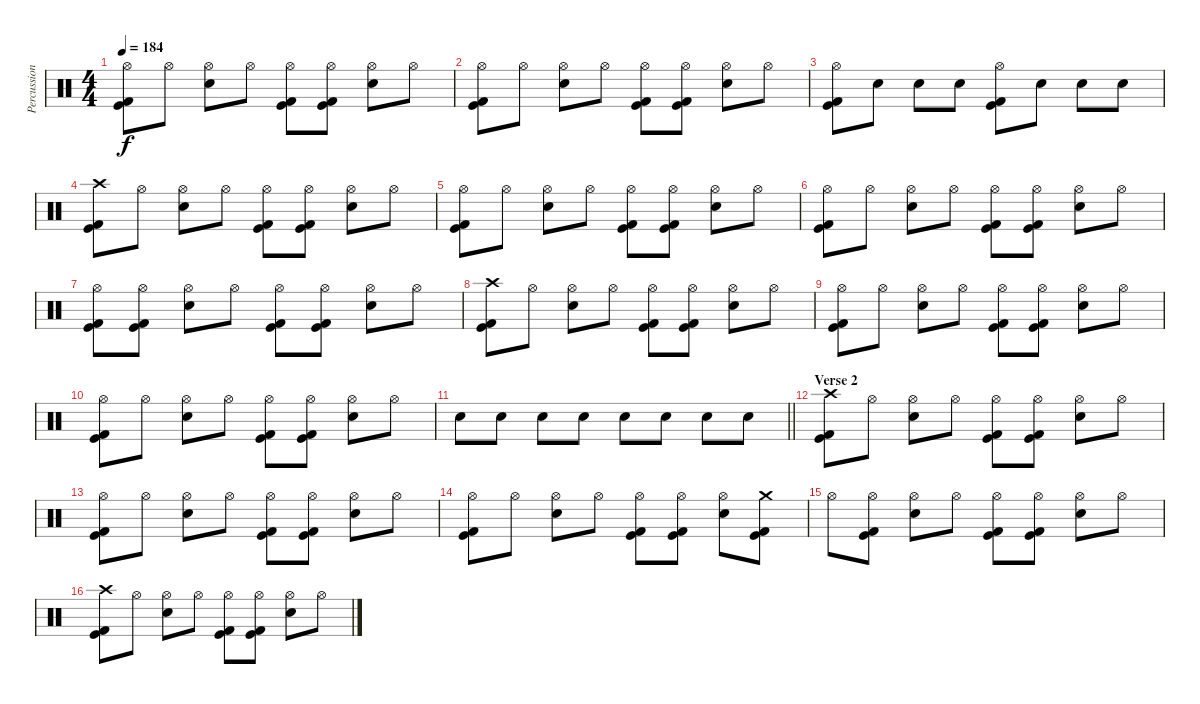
\track ("Percussion" "Percussion") {instrument percussion}
\staff {score}
\articulation defaults
\ts (4 4)
\tempo 184
\clef neutral
\ks c
("Hi-Hat (open)" "Kick (hit)" "Kick (hit) 2").8{dy f} "Hi-Hat (open)".8 ("Hi-Hat (open)" "Electric Snare (hit)").8 "Hi-Hat (open)".8 ("Hi-Hat (open)" "Kick (hit)" "Kick (hit) 2").8 ("Hi-Hat (open)" "Kick (hit)" "Kick (hit) 2").8 ("Hi-Hat (open)" "Electric Snare (hit)").8 "Hi-Hat (open)".8 |
("Hi-Hat (open)" "Kick (hit)" "Kick (hit) 2").8 "Hi-Hat (open)".8 ("Hi-Hat (open)" "Electric Snare (hit)").8 "Hi-Hat (open)".8 ("Hi-Hat (open)" "Kick (hit)" "Kick (hit) 2").8 ("Hi-Hat (open)" "Kick (hit)" "Kick (hit) 2").8 ("Hi-Hat (open)" "Electric Snare (hit)").8 "Hi-Hat (open)".8 |
("Hi-Hat (open)" "Kick (hit)" "Kick (hit) 2").8 "Electric Snare (hit)".8 "Electric Snare (hit)".8 "Electric Snare (hit)".8 ("Hi-Hat (open)" "Kick (hit)" "Kick (hit) 2").8 "Electric Snare (hit)".8 "Electric Snare (hit)".8 "Electric Snare (hit)".8 |
("Crash high (hit)" "Kick (hit)" "Kick (hit) 2").8 "Hi-Hat (open)".8 ("Hi-Hat (open)" "Electric Snare (hit)").8 "Hi-Hat (open)".8 ("Hi-Hat (open)" "Kick (hit)" "Kick (hit) 2").8 ("Hi-Hat (open)" "Kick (hit)" "Kick (hit) 2").8 ("Hi-Hat (open)" "Electric Snare (hit)").8 "Hi-Hat (open)".8 |
("Hi-Hat (open)" "Kick (hit)" "Kick (hit) 2").8 "Hi-Hat (open)".8 ("Hi-Hat (open)" "Electric Snare (hit)").8 "Hi-Hat (open)".8 ("Hi-Hat (open)" "Kick (hit)" "Kick (hit) 2").8 ("Hi-Hat (open)" "Kick (hit)" "Kick (hit) 2").8 ("Hi-Hat (open)" "Electric Snare (hit)").8 "Hi-Hat (open)".8 |
("Hi-Hat (open)" "Kick (hit)" "Kick (hit) 2").8 "Hi-Hat (open)".8 ("Hi-Hat (open)" "Electric Snare (hit)").8 "Hi-Hat (open)".8 ("Hi-Hat (open)" "Kick (hit)" "Kick (hit) 2").8 ("Hi-Hat (open)" "Kick (hit)" "Kick (hit) 2").8 ("Hi-Hat (open)" "Electric Snare (hit)").8 "Hi-Hat (open)".8 |
("Hi-Hat (open)" "Kick (hit)" "Kick (hit) 2").8 ("Hi-Hat (open)" "Kick (hit)" "Kick (hit) 2").8 ("Hi-Hat (open)" "Electric Snare (hit)").8 "Hi-Hat (open)".8 ("Hi-Hat (open)" "Kick (hit)" "Kick (hit) 2").8 ("Hi-Hat (open)" "Kick (hit)" "Kick (hit) 2").8 ("Hi-Hat (open)" "Electric Snare (hit)").8 "Hi-Hat (open)".8 |
("Crash high (hit)" "Kick (hit)" "Kick (hit) 2").8 "Hi-Hat (open)".8 ("Hi-Hat (open)" "Electric Snare (hit)").8 "Hi-Hat (open)".8 ("Hi-Hat (open)" "Kick (hit)" "Kick (hit) 2").8 ("Hi-Hat (open)" "Kick (hit)" "Kick (hit) 2").8 ("Hi-Hat (open)" "Electric Snare (hit)").8 "Hi-Hat (open)".8 |
("Hi-Hat (open)" "Kick (hit)" "Kick (hit) 2").8 "Hi-Hat (open)".8 ("Hi-Hat (open)" "Electric Snare (hit)").8 "Hi-Hat (open)".8 ("Hi-Hat (open)" "Kick (hit)" "Kick (hit) 2").8 ("Hi-Hat (open)" "Kick (hit)" "Kick (hit) 2").8 ("Hi-Hat (open)" "Electric Snare (hit)").8 "Hi-Hat (open)".8 |
("Hi-Hat (open)" "Kick (hit)" "Kick (hit) 2").8 "Hi-Hat (open)".8 ("Hi-Hat (open)" "Electric Snare (hit)").8 "Hi-Hat (open)".8 ("Hi-Hat (open)" "Kick (hit)" "Kick (hit) 2").8 ("Hi-Hat (open)" "Kick (hit)" "Kick (hit) 2").8 ("Hi-Hat (open)" "Electric Snare (hit)").8 "Hi-Hat (open)".8 |
\barLineRight lightlight "Electric Snare (hit)".8 "Electric Snare (hit)".8 "Electric Snare (hit)".8 "Electric Snare (hit)".8 "Electric Snare (hit)".8 "Electric Snare (hit)".8 "Electric Snare (hit)".8 "Electric Snare (hit)".8
|
\section ("" "Verse 2")
("Crash high (hit)" "Kick (hit)" "Kick (hit) 2").8 "Hi-Hat (open)".8 ("Hi-Hat (open)" "Electric Snare (hit)").8 "Hi-Hat (open)".8 ("Hi-Hat (open)" "Kick (hit)" "Kick (hit) 2").8 ("Hi-Hat (open)" "Kick (hit)" "Kick (hit) 2").8 ("Hi-Hat (open)" "Electric Snare (hit)").8 "Hi-Hat (open)".8 |
("Hi-Hat (open)" "Kick (hit)" "Kick (hit) 2").8 "Hi-Hat (open)".8 ("Hi-Hat (open)" "Electric Snare (hit)").8 "Hi-Hat (open)".8 ("Hi-Hat (open)" "Kick (hit)" "Kick (hit) 2").8 ("Hi-Hat (open)" "Kick (hit)" "Kick (hit) 2").8 ("Hi-Hat (open)" "Electric Snare (hit)").8 "Hi-Hat (open)".8 |
("Hi-Hat (open)" "Kick (hit)" "Kick (hit) 2").8 "Hi-Hat (open)".8 ("Hi-Hat (open)" "Electric Snare (hit)").8 "Hi-Hat (open)".8 ("Hi-Hat (open)" "Kick (hit)" "Kick (hit) 2").8 ("Hi-Hat (open)" "Kick (hit)" "Kick (hit) 2").8 ("Hi-Hat (open)" "Electric Snare (hit)").8 ("Crash medium (hit)" "Kick (hit)" "Kick (hit) 2").8 |
"Hi-Hat (open)".8 ("Hi-Hat (open)" "Kick (hit)" "Kick (hit) 2").8 ("Hi-Hat (open)" "Electric Snare (hit)").8 "Hi-Hat (open)".8 ("Hi-Hat (open)" "Kick (hit)" "Kick (hit) 2").8 ("Hi-Hat (open)" "Kick (hit)" "Kick (hit) 2").8 ("Hi-Hat (open)" "Electric Snare (hit)").8 "Hi-Hat (open)".8 |
("Crash high (hit)" "Kick (hit)" "Kick (hit) 2").8 "Hi-Hat (open)".8 ("Hi-Hat (open)" "Electric Snare (hit)").8 "Hi-Hat (open)".8 ("Hi-Hat (open)" "Kick (hit)" "Kick (hit) 2").8 ("Hi-Hat (open)" "Kick (hit)" "Kick (hit) 2").8 ("Hi-Hat (open)" "Electric Snare (hit)").8 "Hi-Hat (open)".8
